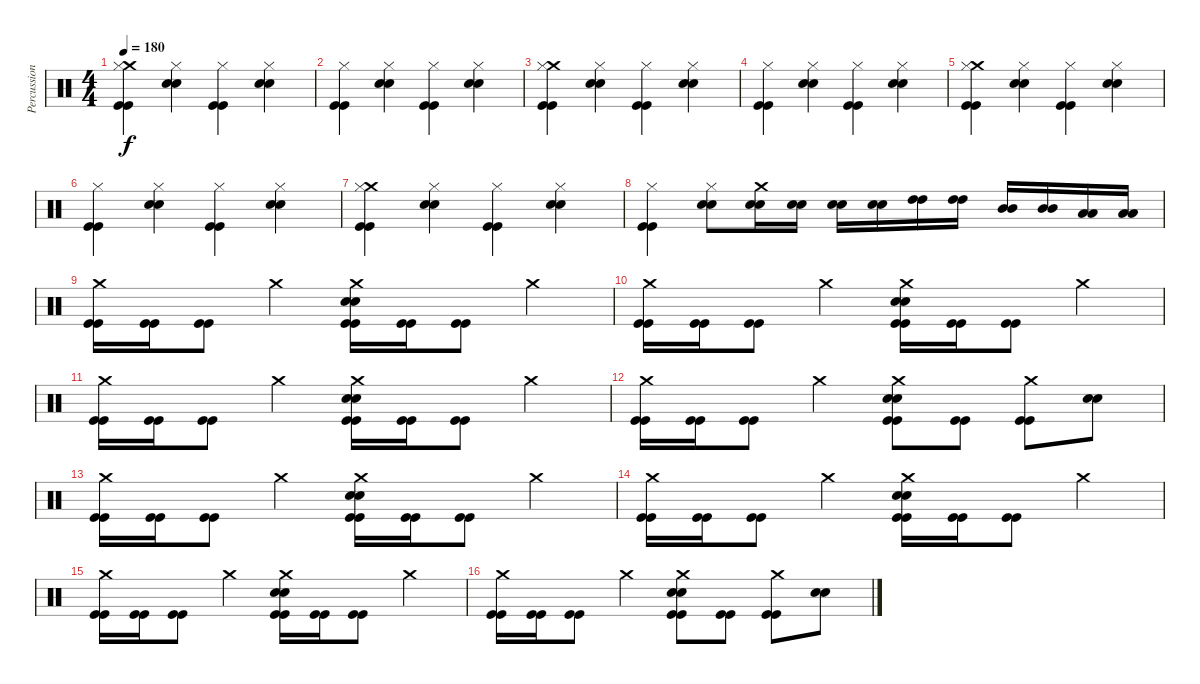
\track ("Percussion" "Percussion") {instrument percussion}
\staff {score}
\articulation defaults
\ts (4 4)
\tempo 180
\clef neutral
\ks c
("Crash medium (hit)" "Hi-Hat (closed)" "Kick (hit)" "Kick (hit)").4{dy f} ("Hi-Hat (closed)" "Snare (hit) 2" "Snare (hit) 2").4 ("Hi-Hat (closed)" "Kick (hit)" "Kick (hit)").4 ("Hi-Hat (closed)" "Snare (hit) 2" "Snare (hit) 2").4 |
("Hi-Hat (closed)" "Kick (hit)" "Kick (hit)").4 ("Hi-Hat (closed)" "Snare (hit) 2" "Snare (hit) 2").4 ("Hi-Hat (closed)" "Kick (hit)" "Kick (hit)").4 ("Hi-Hat (closed)" "Snare (hit) 2" "Snare (hit) 2").4 |
("Crash medium (hit)" "Hi-Hat (closed)" "Kick (hit)" "Kick (hit)").4 ("Hi-Hat (closed)" "Snare (hit) 2" "Snare (hit) 2").4 ("Hi-Hat (closed)" "Kick (hit)" "Kick (hit)").4 ("Hi-Hat (closed)" "Snare (hit) 2" "Snare (hit) 2").4 |
("Hi-Hat (closed)" "Kick (hit)" "Kick (hit)").4 ("Hi-Hat (closed)" "Snare (hit) 2" "Snare (hit) 2").4 ("Hi-Hat (closed)" "Kick (hit)" "Kick (hit)").4 ("Hi-Hat (closed)" "Snare (hit) 2" "Snare (hit) 2").4 |
("Crash medium (hit)" "Hi-Hat (closed)" "Kick (hit)" "Kick (hit)").4 ("Hi-Hat (closed)" "Snare (hit) 2" "Snare (hit) 2").4 ("Hi-Hat (closed)" "Kick (hit)" "Kick (hit)").4 ("Hi-Hat (closed)" "Snare (hit) 2" "Snare (hit) 2").4 |
("Hi-Hat (closed)" "Kick (hit)" "Kick (hit)").4 ("Hi-Hat (closed)" "Snare (hit) 2" "Snare (hit) 2").4 ("Hi-Hat (closed)" "Kick (hit)" "Kick (hit)").4 ("Hi-Hat (closed)" "Snare (hit) 2" "Snare (hit) 2").4 |
("Crash medium (hit)" "Hi-Hat (closed)" "Kick (hit)" "Kick (hit)").4 ("Hi-Hat (closed)" "Snare (hit) 2" "Snare (hit) 2").4 ("Hi-Hat (closed)" "Kick (hit)" "Kick (hit)").4 ("Hi-Hat (closed)" "Snare (hit) 2" "Snare (hit) 2").4 |
("Hi-Hat (closed)" "Kick (hit)" "Kick (hit)").4 ("Hi-Hat (closed)" "Snare (hit) 2" "Snare (hit) 2").8 ("Crash medium (hit)" "Snare (hit) 2" "Snare (hit) 2").16 ("Snare (hit) 2" "Snare (hit) 2").16 ("Snare (hit) 2" "Snare (hit) 2").16 ("Snare (hit) 2" "Snare (hit) 2").16 ("High Tom (hit)" "High Tom (hit)").16 ("High Tom (hit)" "High Tom (hit)").16 ("Mid Tom (hit)" "Mid Tom (hit)").16 ("Mid Tom (hit)" "Mid Tom (hit)").16 ("Low Tom (hit)" "Low Tom (hit)").16 ("Low Tom (hit)" "Low Tom (hit)").16 |
("Crash medium (hit)" "Kick (hit)" "Kick (hit)").16 ("Kick (hit)" "Kick (hit)").16 ("Kick (hit)" "Kick (hit)").8 "Crash medium (hit)".4 ("Snare (hit) 2" "Snare (hit) 2" "Crash medium (hit)" "Kick (hit)" "Kick (hit)").16 ("Kick (hit)" "Kick (hit)").16 ("Kick (hit)" "Kick (hit)").8 "Crash medium (hit)".4 |
("Crash medium (hit)" "Kick (hit)" "Kick (hit)").16 ("Kick (hit)" "Kick (hit)").16 ("Kick (hit)" "Kick (hit)").8 "Crash medium (hit)".4 ("Snare (hit) 2" "Snare (hit) 2" "Crash medium (hit)" "Kick (hit)" "Kick (hit)").16 ("Kick (hit)" "Kick (hit)").16 ("Kick (hit)" "Kick (hit)").8 "Crash medium (hit)".4 |
("Crash medium (hit)" "Kick (hit)" "Kick (hit)").16 ("Kick (hit)" "Kick (hit)").16 ("Kick (hit)" "Kick (hit)").8 "Crash medium (hit)".4 ("Snare (hit) 2" "Snare (hit) 2" "Crash medium (hit)" "Kick (hit)" "Kick (hit)").16 ("Kick (hit)" "Kick (hit)").16 ("Kick (hit)" "Kick (hit)").8 "Crash medium (hit)".4 |
("Crash medium (hit)" "Kick (hit)" "Kick (hit)").16 ("Kick (hit)" "Kick (hit)").16 ("Kick (hit)" "Kick (hit)").8 "Crash medium (hit)".4 ("Snare (hit) 2" "Snare (hit) 2" "Crash medium (hit)" "Kick (hit)" "Kick (hit)").8 ("Kick (hit)" "Kick (hit)").8 ("Crash medium (hit)" "Kick (hit)" "Kick (hit)").8 ("Snare (hit) 2" "Snare (hit) 2").8 |
("Crash medium (hit)" "Kick (hit)" "Kick (hit)").16 ("Kick (hit)" "Kick (hit)").16 ("Kick (hit)" "Kick (hit)").8 "Crash medium (hit)".4 ("Snare (hit) 2" "Snare (hit) 2" "Crash medium (hit)" "Kick (hit)" "Kick (hit)").16 ("Kick (hit)" "Kick (hit)").16 ("Kick (hit)" "Kick (hit)").8 "Crash medium (hit)".4 |
("Crash medium (hit)" "Kick (hit)" "Kick (hit)").16 ("Kick (hit)" "Kick (hit)").16 ("Kick (hit)" "Kick (hit)").8 "Crash medium (hit)".4 ("Snare (hit) 2" "Snare (hit) 2" "Crash medium (hit)" "Kick (hit)" "Kick (hit)").16 ("Kick (hit)" "Kick (hit)").16 ("Kick (hit)" "Kick (hit)").8 "Crash medium (hit)".4 |
("Crash medium (hit)" "Kick (hit)" "Kick (hit)").16 ("Kick (hit)" "Kick (hit)").16 ("Kick (hit)" "Kick (hit)").8 "Crash medium (hit)".4 ("Snare (hit) 2" "Snare (hit) 2" "Crash medium (hit)" "Kick (hit)" "Kick (hit)").16 ("Kick (hit)" "Kick (hit)").16 ("Kick (hit)" "Kick (hit)").8 "Crash medium (hit)".4 |
("Crash medium (hit)" "Kick (hit)" "Kick (hit)").16 ("Kick (hit)" "Kick (hit)").16 ("Kick (hit)" "Kick (hit)").8 "Crash medium (hit)".4 ("Snare (hit) 2" "Snare (hit) 2" "Crash medium (hit)" "Kick (hit)" "Kick (hit)").8 ("Kick (hit)" "Kick (hit)").8 ("Crash medium (hit)" "Kick (hit)" "Kick (hit)").8 ("Snare (hit) 2" "Snare (hit) 2").8
